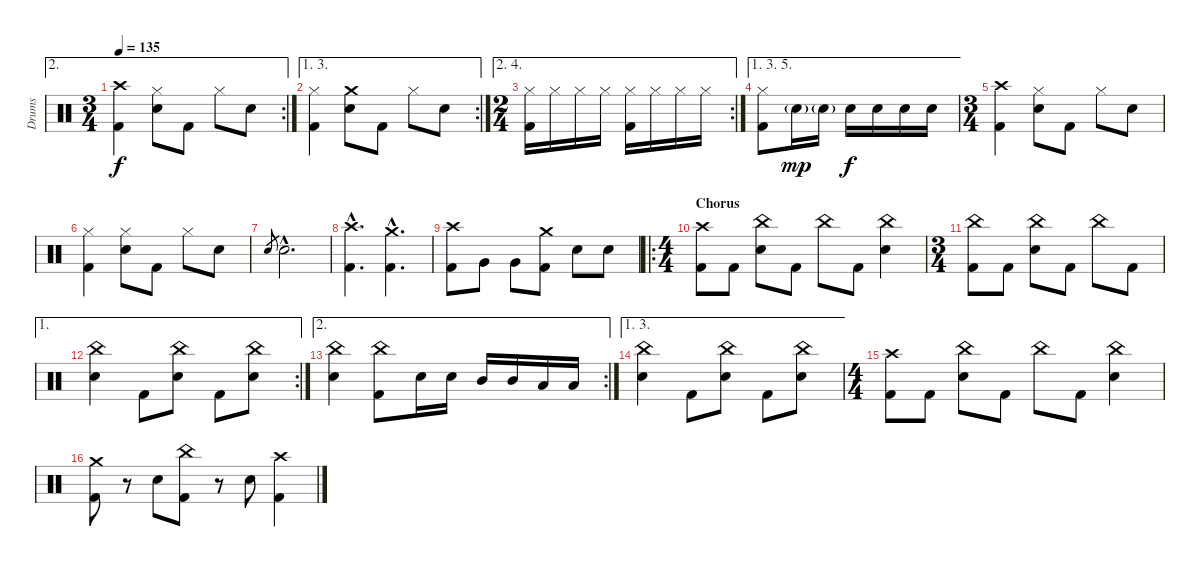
\track ("Drums" "Drums") {instrument percussion}
\staff {score}
\articulation defaults
\ae 2
\rc 2
\ts (3 4)
\tempo 135
\clef neutral
\ks c
("Crash high (hit)" "Kick (hit) 2").4{dy f} ("Hi-Hat (closed)" "Electric Snare (hit)").8 "Kick (hit) 2".8 "Hi-Hat (closed)".8 "Electric Snare (hit)".8 |
\ae (1 3)
\rc 2
("Hi-Hat (closed)" "Kick (hit) 2").4 ("Crash medium (hit)" "Electric Snare (hit)").8 "Kick (hit) 2".8 "Hi-Hat (closed)".8 "Electric Snare (hit)".8 |
\ae (2 4)
\rc 2
\ts (2 4)
("Hi-Hat (closed)" "Kick (hit) 2").16 "Hi-Hat (closed)".16 "Hi-Hat (closed)".16 "Hi-Hat (closed)".16 ("Hi-Hat (closed)" "Kick (hit) 2").16 "Hi-Hat (closed)".16 "Hi-Hat (closed)".16 "Hi-Hat (closed)".16 |
\ae (1 3 5)
("Hi-Hat (closed)" "Kick (hit) 2").8 "Electric Snare (hit)"{g}.16{dy mp} "Electric Snare (hit)"{g}.16 "Electric Snare (hit)".16{dy f} "Electric Snare (hit)".16 "Electric Snare (hit)".16 "Electric Snare (hit)".16 |
\ts (3 4)
("Crash high (hit)" "Kick (hit) 2").4 ("Hi-Hat (closed)" "Electric Snare (hit)").8 "Kick (hit) 2".8 "Hi-Hat (closed)".8 "Electric Snare (hit)".8 |
("Hi-Hat (closed)" "Kick (hit) 2").4 ("Hi-Hat (closed)" "Electric Snare (hit)").8 "Kick (hit) 2".8 "Hi-Hat (closed)".8 "Electric Snare (hit)".8 |
"Electric Snare (hit)".8{gr} "Electric Snare (hit)"{hac}.2{d} |
("Crash high (hit)"{hac} "Kick (hit) 2"{hac}).4{d} ("Crash medium (hit)"{hac} "Kick (hit) 2"{hac}).4{d} |
("Crash high (hit)" "Kick (hit) 2").8 "Very Low Tom (hit)".8 "Very Low Tom (hit)".8 ("Crash medium (hit)" "Kick (hit) 2").8 "Electric Snare (hit)".8 "Electric Snare (hit)".8 |
\ro
\ts (4 4)
\section ("" "Chorus")
("Crash high (hit)" "Kick (hit) 2").8 "Kick (hit) 2".8 ("China (hit)" "Electric Snare (hit)").8 "Kick (hit) 2".8 "China (hit)".8 "Kick (hit) 2".8 ("China (hit)" "Electric Snare (hit)").4 |
\ts (3 4)
("China (hit)" "Kick (hit) 2").8 "Kick (hit) 2".8 ("China (hit)" "Electric Snare (hit)").8 "Kick (hit) 2".8 "China (hit)".8 "Kick (hit) 2".8 |
\ae 1
\rc 2
("China (hit)" "Electric Snare (hit)").4 "Kick (hit) 2".8 ("China (hit)" "Electric Snare (hit)").8 "Kick (hit) 2".8 ("China (hit)" "Electric Snare (hit)").8 |
\ae 2
\rc 2
("China (hit)" "Electric Snare (hit)").4 ("China (hit)" "Kick (hit) 2").8 "Electric Snare (hit)".16 "Electric Snare (hit)".16 "Mid Tom (hit)".16 "Mid Tom (hit)".16 "Low Tom (hit)".16 "Low Tom (hit)".16 |
\ae (1 3)
("China (hit)" "Electric Snare (hit)").4 "Kick (hit) 2".8 ("China (hit)" "Electric Snare (hit)").8 "Kick (hit) 2".8 ("China (hit)" "Electric Snare (hit)").8 |
\ts (4 4)
("Crash high (hit)" "Kick (hit) 2").8 "Kick (hit) 2".8 ("China (hit)" "Electric Snare (hit)").8 "Kick (hit) 2".8 "China (hit)".8 "Kick (hit) 2".8 ("China (hit)" "Electric Snare (hit)").4 |
("Crash medium (hit)" "Kick (hit) 2").8 r.8 "Electric Snare (hit)".8 ("China (hit)" "Kick (hit) 2").8 r.8 "Electric Snare (hit)".8 ("Crash high (hit)" "Kick (hit) 2").4
